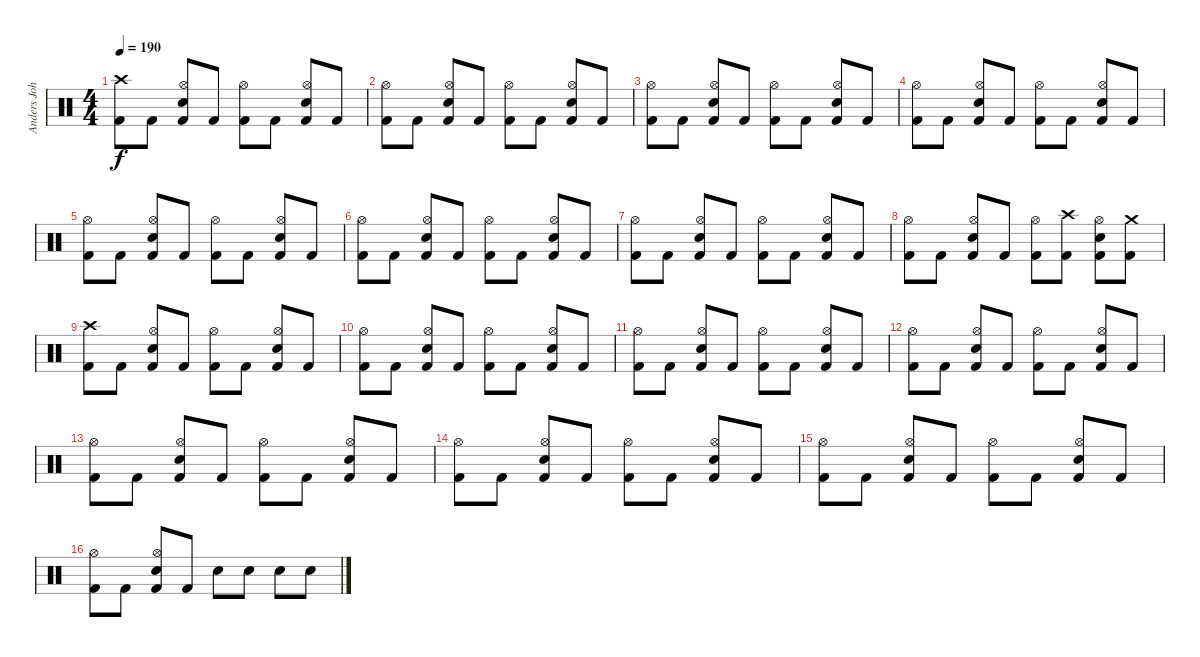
\track ("Anders Johansson Drums" "Anders Joh") {instrument percussion}
\staff {score}
\articulation defaults
\ts (4 4)
\tempo 190
\clef neutral
\ks c
("Crash high (hit)" "Kick (hit) 2").8{dy f} "Kick (hit) 2".8 ("Hi-Hat (open)" "Snare (hit) 2" "Kick (hit) 2").8 "Kick (hit) 2".8 ("Hi-Hat (open)" "Kick (hit) 2").8 "Kick (hit) 2".8 ("Hi-Hat (open)" "Snare (hit) 2" "Kick (hit) 2").8 "Kick (hit) 2".8 |
("Hi-Hat (open)" "Kick (hit) 2").8 "Kick (hit) 2".8 ("Hi-Hat (open)" "Snare (hit) 2" "Kick (hit) 2").8 "Kick (hit) 2".8 ("Hi-Hat (open)" "Kick (hit) 2").8 "Kick (hit) 2".8 ("Hi-Hat (open)" "Snare (hit) 2" "Kick (hit) 2").8 "Kick (hit) 2".8 |
("Hi-Hat (open)" "Kick (hit) 2").8 "Kick (hit) 2".8 ("Hi-Hat (open)" "Snare (hit) 2" "Kick (hit) 2").8 "Kick (hit) 2".8 ("Hi-Hat (open)" "Kick (hit) 2").8 "Kick (hit) 2".8 ("Hi-Hat (open)" "Snare (hit) 2" "Kick (hit) 2").8 "Kick (hit) 2".8 |
("Hi-Hat (open)" "Kick (hit) 2").8 "Kick (hit) 2".8 ("Hi-Hat (open)" "Snare (hit) 2" "Kick (hit) 2").8 "Kick (hit) 2".8 ("Hi-Hat (open)" "Kick (hit) 2").8 "Kick (hit) 2".8 ("Hi-Hat (open)" "Snare (hit) 2" "Kick (hit) 2").8 "Kick (hit) 2".8 |
("Hi-Hat (open)" "Kick (hit) 2").8 "Kick (hit) 2".8 ("Hi-Hat (open)" "Snare (hit) 2" "Kick (hit) 2").8 "Kick (hit) 2".8 ("Hi-Hat (open)" "Kick (hit) 2").8 "Kick (hit) 2".8 ("Hi-Hat (open)" "Snare (hit) 2" "Kick (hit) 2").8 "Kick (hit) 2".8 |
("Hi-Hat (open)" "Kick (hit) 2").8 "Kick (hit) 2".8 ("Hi-Hat (open)" "Snare (hit) 2" "Kick (hit) 2").8 "Kick (hit) 2".8 ("Hi-Hat (open)" "Kick (hit) 2").8 "Kick (hit) 2".8 ("Hi-Hat (open)" "Snare (hit) 2" "Kick (hit) 2").8 "Kick (hit) 2".8 |
("Hi-Hat (open)" "Kick (hit) 2").8 "Kick (hit) 2".8 ("Hi-Hat (open)" "Snare (hit) 2" "Kick (hit) 2").8 "Kick (hit) 2".8 ("Hi-Hat (open)" "Kick (hit) 2").8 "Kick (hit) 2".8 ("Hi-Hat (open)" "Snare (hit) 2" "Kick (hit) 2").8 "Kick (hit) 2".8 |
("Hi-Hat (open)" "Kick (hit) 2").8 "Kick (hit) 2".8 ("Hi-Hat (open)" "Snare (hit) 2" "Kick (hit) 2").8 "Kick (hit) 2".8 ("Hi-Hat (open)" "Kick (hit) 2").8 ("Crash high (hit)" "Kick (hit) 2").8 ("Hi-Hat (open)" "Snare (hit) 2" "Kick (hit) 2").8 ("Crash medium (hit)" "Kick (hit) 2").8 |
("Crash high (hit)" "Kick (hit) 2").8 "Kick (hit) 2".8 ("Hi-Hat (open)" "Snare (hit) 2" "Kick (hit) 2").8 "Kick (hit) 2".8 ("Hi-Hat (open)" "Kick (hit) 2").8 "Kick (hit) 2".8 ("Hi-Hat (open)" "Snare (hit) 2" "Kick (hit) 2").8 "Kick (hit) 2".8 |
("Hi-Hat (open)" "Kick (hit) 2").8 "Kick (hit) 2".8 ("Hi-Hat (open)" "Snare (hit) 2" "Kick (hit) 2").8 "Kick (hit) 2".8 ("Hi-Hat (open)" "Kick (hit) 2").8 "Kick (hit) 2".8 ("Hi-Hat (open)" "Snare (hit) 2" "Kick (hit) 2").8 "Kick (hit) 2".8 |
("Hi-Hat (open)" "Kick (hit) 2").8 "Kick (hit) 2".8 ("Hi-Hat (open)" "Snare (hit) 2" "Kick (hit) 2").8 "Kick (hit) 2".8 ("Hi-Hat (open)" "Kick (hit) 2").8 "Kick (hit) 2".8 ("Hi-Hat (open)" "Snare (hit) 2" "Kick (hit) 2").8 "Kick (hit) 2".8 |
("Hi-Hat (open)" "Kick (hit) 2").8 "Kick (hit) 2".8 ("Hi-Hat (open)" "Snare (hit) 2" "Kick (hit) 2").8 "Kick (hit) 2".8 ("Hi-Hat (open)" "Kick (hit) 2").8 "Kick (hit) 2".8 ("Hi-Hat (open)" "Snare (hit) 2" "Kick (hit) 2").8 "Kick (hit) 2".8 |
("Hi-Hat (open)" "Kick (hit) 2").8 "Kick (hit) 2".8 ("Hi-Hat (open)" "Snare (hit) 2" "Kick (hit) 2").8 "Kick (hit) 2".8 ("Hi-Hat (open)" "Kick (hit) 2").8 "Kick (hit) 2".8 ("Hi-Hat (open)" "Snare (hit) 2" "Kick (hit) 2").8 "Kick (hit) 2".8 |
("Hi-Hat (open)" "Kick (hit) 2").8 "Kick (hit) 2".8 ("Hi-Hat (open)" "Snare (hit) 2" "Kick (hit) 2").8 "Kick (hit) 2".8 ("Hi-Hat (open)" "Kick (hit) 2").8 "Kick (hit) 2".8 ("Hi-Hat (open)" "Snare (hit) 2" "Kick (hit) 2").8 "Kick (hit) 2".8 |
("Hi-Hat (open)" "Kick (hit) 2").8 "Kick (hit) 2".8 ("Hi-Hat (open)" "Snare (hit) 2" "Kick (hit) 2").8 "Kick (hit) 2".8 ("Hi-Hat (open)" "Kick (hit) 2").8 "Kick (hit) 2".8 ("Hi-Hat (open)" "Snare (hit) 2" "Kick (hit) 2").8 "Kick (hit) 2".8 |
("Hi-Hat (open)" "Kick (hit) 2").8 "Kick (hit) 2".8 ("Hi-Hat (open)" "Snare (hit) 2" "Kick (hit) 2").8 "Kick (hit) 2".8 "Snare (hit) 2".8 "Snare (hit) 2".8 "Snare (hit) 2".8 "Snare (hit) 2".8
